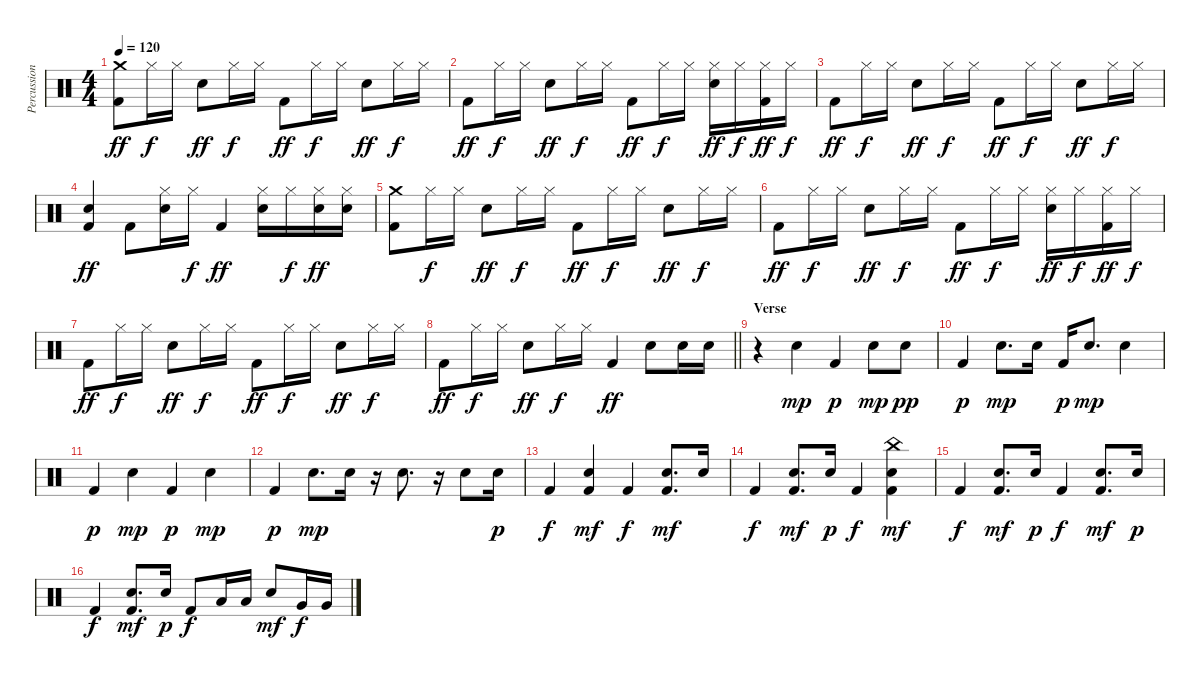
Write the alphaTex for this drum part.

\track ("Percussion" "Percussion") {instrument percussion}
\staff {score}
\articulation defaults
\ts (4 4)
\tempo 120
\clef neutral
\ks c
("Crash medium (hit)" "Kick (hit) 2").8{dy ff} "Hi-Hat (closed)".16{dy f} "Hi-Hat (closed)".16 "Electric Snare (hit)".8{dy ff} "Hi-Hat (closed)".16{dy f} "Hi-Hat (closed)".16 "Kick (hit) 2".8{dy ff} "Hi-Hat (closed)".16{dy f} "Hi-Hat (closed)".16 "Electric Snare (hit)".8{dy ff} "Hi-Hat (closed)".16{dy f} "Hi-Hat (closed)".16 |
"Kick (hit) 2".8{dy ff} "Hi-Hat (closed)".16{dy f} "Hi-Hat (closed)".16 "Electric Snare (hit)".8{dy ff} "Hi-Hat (closed)".16{dy f} "Hi-Hat (closed)".16 "Kick (hit) 2".8{dy ff} "Hi-Hat (closed)".16{dy f} "Hi-Hat (closed)".16 ("Hi-Hat (closed)" "Electric Snare (hit)").16{dy ff} "Hi-Hat (closed)".16{dy f} ("Hi-Hat (closed)" "Kick (hit) 2").16{dy ff} "Hi-Hat (closed)".16{dy f} |
"Kick (hit) 2".8{dy ff} "Hi-Hat (closed)".16{dy f} "Hi-Hat (closed)".16 "Electric Snare (hit)".8{dy ff} "Hi-Hat (closed)".16{dy f} "Hi-Hat (closed)".16 "Kick (hit) 2".8{dy ff} "Hi-Hat (closed)".16{dy f} "Hi-Hat (closed)".16 "Electric Snare (hit)".8{dy ff} "Hi-Hat (closed)".16{dy f} "Hi-Hat (closed)".16 |
("Electric Snare (hit)" "Kick (hit) 2").4{dy ff} "Kick (hit) 2".8 ("Hi-Hat (closed)" "Electric Snare (hit)").16 "Hi-Hat (closed)".16{dy f} "Kick (hit) 2".4{dy ff} ("Hi-Hat (closed)" "Electric Snare (hit)").16 "Hi-Hat (closed)".16{dy f} ("Hi-Hat (closed)" "Electric Snare (hit)").16{dy ff} ("Hi-Hat (closed)" "Electric Snare (hit)").16 |
("Crash medium (hit)" "Kick (hit) 2").8 "Hi-Hat (closed)".16{dy f} "Hi-Hat (closed)".16 "Electric Snare (hit)".8{dy ff} "Hi-Hat (closed)".16{dy f} "Hi-Hat (closed)".16 "Kick (hit) 2".8{dy ff} "Hi-Hat (closed)".16{dy f} "Hi-Hat (closed)".16 "Electric Snare (hit)".8{dy ff} "Hi-Hat (closed)".16{dy f} "Hi-Hat (closed)".16 |
"Kick (hit) 2".8{dy ff} "Hi-Hat (closed)".16{dy f} "Hi-Hat (closed)".16 "Electric Snare (hit)".8{dy ff} "Hi-Hat (closed)".16{dy f} "Hi-Hat (closed)".16 "Kick (hit) 2".8{dy ff} "Hi-Hat (closed)".16{dy f} "Hi-Hat (closed)".16 ("Hi-Hat (closed)" "Electric Snare (hit)").16{dy ff} "Hi-Hat (closed)".16{dy f} ("Hi-Hat (closed)" "Kick (hit) 2").16{dy ff} "Hi-Hat (closed)".16{dy f} |
"Kick (hit) 2".8{dy ff} "Hi-Hat (closed)".16{dy f} "Hi-Hat (closed)".16 "Electric Snare (hit)".8{dy ff} "Hi-Hat (closed)".16{dy f} "Hi-Hat (closed)".16 "Kick (hit) 2".8{dy ff} "Hi-Hat (closed)".16{dy f} "Hi-Hat (closed)".16 "Electric Snare (hit)".8{dy ff} "Hi-Hat (closed)".16{dy f} "Hi-Hat (closed)".16 |
\barLineRight lightlight "Kick (hit) 2".8{dy ff} "Hi-Hat (closed)".16{dy f} "Hi-Hat (closed)".16 "Electric Snare (hit)".8{dy ff} "Hi-Hat (closed)".16{dy f} "Hi-Hat (closed)".16 "Kick (hit) 2".4{dy ff} "Electric Snare (hit)".8 "Electric Snare (hit)".16 "Electric Snare (hit)".16
|
\section ("" "Verse")
r.4 "Electric Snare (hit)".4{dy mp} "Kick (hit) 2".4{dy p} "Electric Snare (hit)".8{dy mp} "Electric Snare (hit)".8{dy pp} |
"Kick (hit) 2".4{dy p} "Electric Snare (hit)".8{d dy mp} "Electric Snare (hit)".16 "Kick (hit) 2".16{dy p} "Electric Snare (hit)".8{d dy mp} "Electric Snare (hit)".4 |
"Kick (hit) 2".4{dy p} "Electric Snare (hit)".4{dy mp} "Kick (hit) 2".4{dy p} "Electric Snare (hit)".4{dy mp} |
"Kick (hit) 2".4{dy p} "Electric Snare (hit)".8{d dy mp} "Electric Snare (hit)".16 r.16 "Electric Snare (hit)".8{d} r.16 "Electric Snare (hit)".8 "Electric Snare (hit)".16{dy p} |
"Kick (hit) 2".4{dy f} ("Electric Snare (hit)" "Kick (hit) 2").4{dy mf} "Kick (hit) 2".4{dy f} ("Electric Snare (hit)" "Kick (hit) 2").8{d dy mf} "Electric Snare (hit)".16 |
"Kick (hit) 2".4{dy f} ("Electric Snare (hit)" "Kick (hit) 2").8{d dy mf} "Electric Snare (hit)".16{dy p} "Kick (hit) 2".4{dy f} ("China (hit)" "Electric Snare (hit)" "Kick (hit) 2").4{dy mf} |
"Kick (hit) 2".4{dy f} ("Electric Snare (hit)" "Kick (hit) 2").8{d dy mf} "Electric Snare (hit)".16{dy p} "Kick (hit) 2".4{dy f} ("Electric Snare (hit)" "Kick (hit) 2").8{d dy mf} "Electric Snare (hit)".16{dy p} |
"Kick (hit) 2".4{dy f} ("Electric Snare (hit)" "Kick (hit) 2").8{d dy mf} "Electric Snare (hit)".16{dy p} "Kick (hit) 2".8{dy f} "Low Tom (hit)".16 "Low Tom (hit)".16 "Electric Snare (hit)".8{dy mf} "Very Low Tom (hit)".16{dy f} "Very Low Tom (hit)".16
